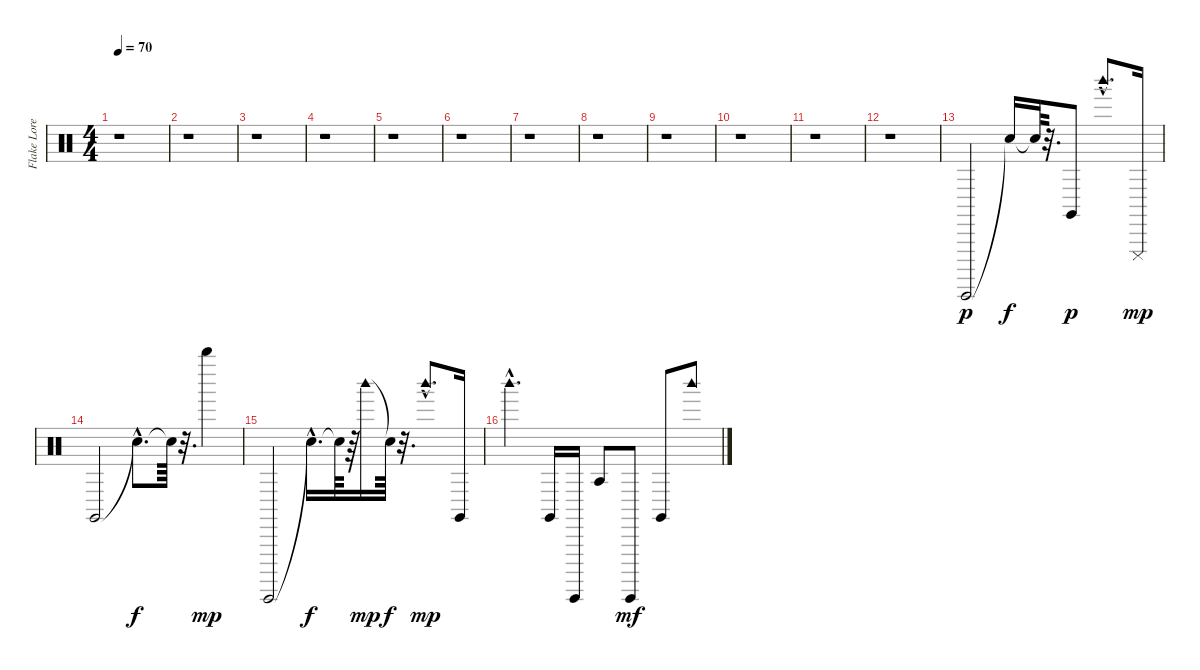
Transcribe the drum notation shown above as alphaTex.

\track ("Flake Lorenz" "Flake Lore") {instrument percussion}
\staff {score}
\articulation defaults
\ts (4 4)
\tempo 70
\clef neutral
\ks c
r.1{dy p} |
r.1 |
r.1 |
r.1 |
r.1 |
r.1 |
r.1 |
r.1 |
r.1 |
r.1 |
r.1 |
r.1 |
"Guiro (hit)".2 "Snare (hit)"{t}.16{dy f} "Snare (hit)"{t}.64 r.32{d} "Claves (hit)".8{dy p} "Woodblock high (hit)"{hac}.8{d} "Cuica (mute)".16{dy mp} |
"Claves (hit)".2 "Snare (hit)"{hac t}.8{d dy f} "Snare (hit)"{t}.64 r.32{d} "Whistle high (hit)".4{dy mp} |
"Guiro (hit)".2 "Snare (hit)"{hac t}.16{d dy f} "Snare (hit)"{t}.64 r.64 "Woodblock high (hit)".16{dy mp} "Snare (hit)"{t}.64{dy f} r.32{d} "Woodblock high (hit)"{hac}.8{d dy mp} "Claves (hit)".16 |
"Woodblock high (hit)"{hac}.4{d} "Claves (hit)".16 "Guiro (hit)".16 "Agogo tow (hit)".8 "Guiro (hit)".8{dy mf} "Claves (hit)".8 "Woodblock high (hit)".8
